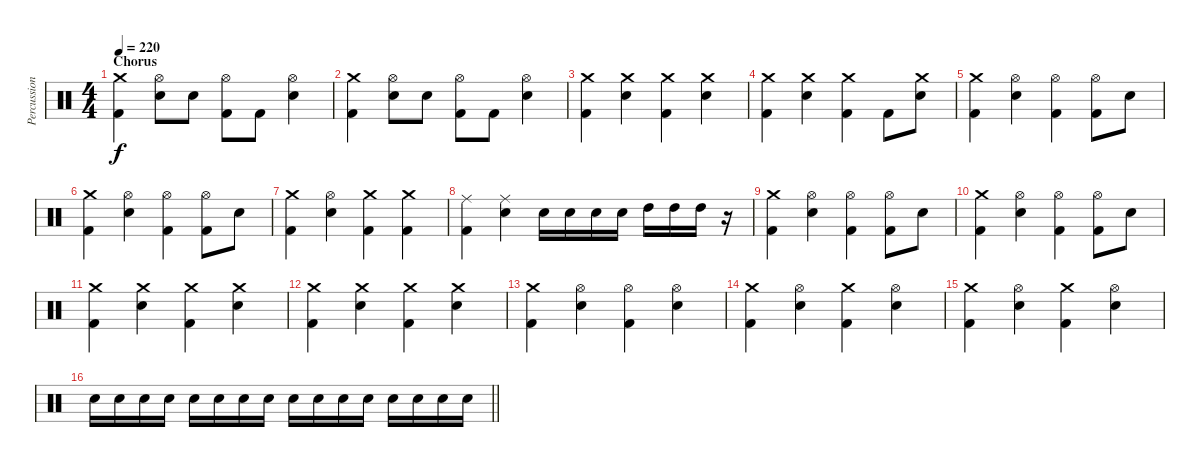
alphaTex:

\track ("Percussion" "Percussion") {instrument percussion}
\staff {score}
\articulation defaults
\ts (4 4)
\section ("" "Chorus")
\tempo 220
\clef neutral
\ks c
("Crash medium (hit)" "Kick (hit) 2").4{dy f} ("Hi-Hat (open)" "Snare (hit) 2").8 "Snare (hit) 2".8 ("Hi-Hat (open)" "Kick (hit) 2").8 "Kick (hit) 2".8 ("Hi-Hat (open)" "Snare (hit) 2").4 |
("Crash medium (hit)" "Kick (hit) 2").4 ("Hi-Hat (open)" "Snare (hit) 2").8 "Snare (hit) 2".8 ("Hi-Hat (open)" "Kick (hit) 2").8 "Kick (hit) 2".8 ("Hi-Hat (open)" "Snare (hit) 2").4 |
("Crash medium (hit)" "Kick (hit) 2").4 ("Crash medium (hit)" "Snare (hit) 2").4 ("Crash medium (hit)" "Kick (hit) 2").4 ("Crash medium (hit)" "Snare (hit) 2").4 |
("Crash medium (hit)" "Kick (hit) 2").4 ("Crash medium (hit)" "Snare (hit) 2").4 ("Crash medium (hit)" "Kick (hit) 2").4 "Kick (hit) 2".8 ("Crash medium (hit)" "Snare (hit) 2").8 |
("Crash medium (hit)" "Kick (hit) 2").4 ("Hi-Hat (open)" "Snare (hit) 2").4 ("Hi-Hat (open)" "Kick (hit) 2").4 ("Hi-Hat (open)" "Kick (hit) 2").8 "Snare (hit) 2".8 |
("Crash medium (hit)" "Kick (hit) 2").4 ("Hi-Hat (open)" "Snare (hit) 2").4 ("Hi-Hat (open)" "Kick (hit) 2").4 ("Hi-Hat (open)" "Kick (hit) 2").8 "Snare (hit) 2".8 |
("Crash medium (hit)" "Kick (hit) 2").4 ("Hi-Hat (open)" "Snare (hit) 2").4 ("Crash medium (hit)" "Kick (hit) 2").4 ("Crash medium (hit)" "Kick (hit) 2").4 |
("Ride (middle)" "Kick (hit) 2").4 ("Ride (middle)" "Snare (hit) 2").4 "Snare (hit) 2".16 "Snare (hit) 2".16 "Snare (hit) 2".16 "Snare (hit) 2".16 "High Tom (hit)".16 "High Tom (hit)".16 "High Tom (hit)".16 r.16 |
("Crash medium (hit)" "Kick (hit) 2").4 ("Hi-Hat (open)" "Snare (hit) 2").4 ("Hi-Hat (open)" "Kick (hit) 2").4 ("Hi-Hat (open)" "Kick (hit) 2").8 "Snare (hit) 2".8 |
("Crash medium (hit)" "Kick (hit) 2").4 ("Hi-Hat (open)" "Snare (hit) 2").4 ("Hi-Hat (open)" "Kick (hit) 2").4 ("Hi-Hat (open)" "Kick (hit) 2").8 "Snare (hit) 2".8 |
("Crash medium (hit)" "Kick (hit) 2").4 ("Crash medium (hit)" "Snare (hit) 2").4 ("Crash medium (hit)" "Kick (hit) 2").4 ("Crash medium (hit)" "Snare (hit) 2").4 |
("Crash medium (hit)" "Kick (hit) 2").4 ("Crash medium (hit)" "Snare (hit) 2").4 ("Crash medium (hit)" "Kick (hit) 2").4 ("Crash medium (hit)" "Snare (hit) 2").4 |
("Crash medium (hit)" "Kick (hit) 2").4 ("Hi-Hat (open)" "Snare (hit) 2").4 ("Hi-Hat (open)" "Kick (hit) 2").4 ("Hi-Hat (open)" "Snare (hit) 2").4 |
("Crash medium (hit)" "Kick (hit) 2").4 ("Hi-Hat (open)" "Snare (hit) 2").4 ("Crash medium (hit)" "Kick (hit) 2").4 ("Hi-Hat (open)" "Snare (hit) 2").4 |
("Crash medium (hit)" "Kick (hit) 2").4 ("Hi-Hat (open)" "Snare (hit) 2").4 ("Crash medium (hit)" "Kick (hit) 2").4 ("Hi-Hat (open)" "Snare (hit) 2").4 |
\barLineRight lightlight "Snare (hit) 2".16 "Snare (hit) 2".16 "Snare (hit) 2".16 "Snare (hit) 2".16 "Snare (hit) 2".16 "Snare (hit) 2".16 "Snare (hit) 2".16 "Snare (hit) 2".16 "Snare (hit) 2".16 "Snare (hit) 2".16 "Snare (hit) 2".16 "Snare (hit) 2".16 "Snare (hit) 2".16 "Snare (hit) 2".16 "Snare (hit) 2".16 "Snare (hit) 2".16
